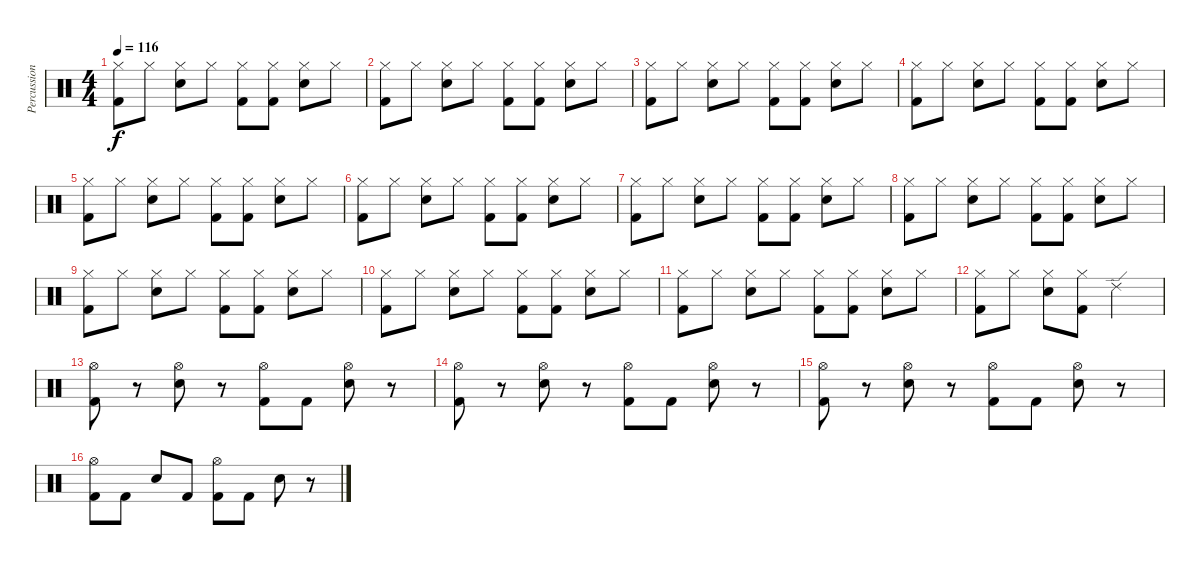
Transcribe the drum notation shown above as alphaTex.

\track ("Percussion" "Percussion") {instrument percussion}
\staff {score}
\articulation defaults
\ts (4 4)
\tempo 116
\clef neutral
\ks c
("Hi-Hat (closed)" "Kick (hit) 2").8{dy f} "Hi-Hat (closed)".8 ("Hi-Hat (closed)" "Snare (hit) 2").8 "Hi-Hat (closed)".8 ("Hi-Hat (closed)" "Kick (hit) 2").8 ("Hi-Hat (closed)" "Kick (hit) 2").8 ("Hi-Hat (closed)" "Snare (hit) 2").8 "Hi-Hat (closed)".8 |
("Hi-Hat (closed)" "Kick (hit) 2").8 "Hi-Hat (closed)".8 ("Hi-Hat (closed)" "Snare (hit) 2").8 "Hi-Hat (closed)".8 ("Hi-Hat (closed)" "Kick (hit) 2").8 ("Hi-Hat (closed)" "Kick (hit) 2").8 ("Hi-Hat (closed)" "Snare (hit) 2").8 "Hi-Hat (closed)".8 |
("Hi-Hat (closed)" "Kick (hit) 2").8 "Hi-Hat (closed)".8 ("Hi-Hat (closed)" "Snare (hit) 2").8 "Hi-Hat (closed)".8 ("Hi-Hat (closed)" "Kick (hit) 2").8 ("Hi-Hat (closed)" "Kick (hit) 2").8 ("Hi-Hat (closed)" "Snare (hit) 2").8 "Hi-Hat (closed)".8 |
("Hi-Hat (closed)" "Kick (hit) 2").8 "Hi-Hat (closed)".8 ("Hi-Hat (closed)" "Snare (hit) 2").8 "Hi-Hat (closed)".8 ("Hi-Hat (closed)" "Kick (hit) 2").8 ("Hi-Hat (closed)" "Kick (hit) 2").8 ("Hi-Hat (closed)" "Snare (hit) 2").8 "Hi-Hat (closed)".8 |
("Hi-Hat (closed)" "Kick (hit) 2").8 "Hi-Hat (closed)".8 ("Hi-Hat (closed)" "Snare (hit) 2").8 "Hi-Hat (closed)".8 ("Hi-Hat (closed)" "Kick (hit) 2").8 ("Hi-Hat (closed)" "Kick (hit) 2").8 ("Hi-Hat (closed)" "Snare (hit) 2").8 "Hi-Hat (closed)".8 |
("Hi-Hat (closed)" "Kick (hit) 2").8 "Hi-Hat (closed)".8 ("Hi-Hat (closed)" "Snare (hit) 2").8 "Hi-Hat (closed)".8 ("Hi-Hat (closed)" "Kick (hit) 2").8 ("Hi-Hat (closed)" "Kick (hit) 2").8 ("Hi-Hat (closed)" "Snare (hit) 2").8 "Hi-Hat (closed)".8 |
("Hi-Hat (closed)" "Kick (hit) 2").8 "Hi-Hat (closed)".8 ("Hi-Hat (closed)" "Snare (hit) 2").8 "Hi-Hat (closed)".8 ("Hi-Hat (closed)" "Kick (hit) 2").8 ("Hi-Hat (closed)" "Kick (hit) 2").8 ("Hi-Hat (closed)" "Snare (hit) 2").8 "Hi-Hat (closed)".8 |
("Hi-Hat (closed)" "Kick (hit) 2").8 "Hi-Hat (closed)".8 ("Hi-Hat (closed)" "Snare (hit) 2").8 "Hi-Hat (closed)".8 ("Hi-Hat (closed)" "Kick (hit) 2").8 ("Hi-Hat (closed)" "Kick (hit) 2").8 ("Hi-Hat (closed)" "Snare (hit) 2").8 "Hi-Hat (closed)".8 |
("Hi-Hat (closed)" "Kick (hit) 2").8 "Hi-Hat (closed)".8 ("Hi-Hat (closed)" "Snare (hit) 2").8 "Hi-Hat (closed)".8 ("Hi-Hat (closed)" "Kick (hit) 2").8 ("Hi-Hat (closed)" "Kick (hit) 2").8 ("Hi-Hat (closed)" "Snare (hit) 2").8 "Hi-Hat (closed)".8 |
("Hi-Hat (closed)" "Kick (hit) 2").8 "Hi-Hat (closed)".8 ("Hi-Hat (closed)" "Snare (hit) 2").8 "Hi-Hat (closed)".8 ("Hi-Hat (closed)" "Kick (hit) 2").8 ("Hi-Hat (closed)" "Kick (hit) 2").8 ("Hi-Hat (closed)" "Snare (hit) 2").8 "Hi-Hat (closed)".8 |
("Hi-Hat (closed)" "Kick (hit) 2").8 "Hi-Hat (closed)".8 ("Hi-Hat (closed)" "Snare (hit) 2").8 "Hi-Hat (closed)".8 ("Hi-Hat (closed)" "Kick (hit) 2").8 ("Hi-Hat (closed)" "Kick (hit) 2").8 ("Hi-Hat (closed)" "Snare (hit) 2").8 "Hi-Hat (closed)".8 |
("Hi-Hat (closed)" "Kick (hit) 2").8 "Hi-Hat (closed)".8 ("Hi-Hat (closed)" "Snare (hit) 2").8 ("Hi-Hat (closed)" "Kick (hit) 2").8 "Ride (edge) 2".2 |
("Hi-Hat (open)" "Kick (hit) 2").8 r.8 ("Hi-Hat (open)" "Snare (hit) 2").8 r.8 ("Hi-Hat (open)" "Kick (hit) 2").8 "Kick (hit) 2".8 ("Hi-Hat (open)" "Snare (hit) 2").8 r.8 |
("Hi-Hat (open)" "Kick (hit) 2").8 r.8 ("Hi-Hat (open)" "Snare (hit) 2").8 r.8 ("Hi-Hat (open)" "Kick (hit) 2").8 "Kick (hit) 2".8 ("Hi-Hat (open)" "Snare (hit) 2").8 r.8 |
("Hi-Hat (open)" "Kick (hit) 2").8 r.8 ("Hi-Hat (open)" "Snare (hit) 2").8 r.8 ("Hi-Hat (open)" "Kick (hit) 2").8 "Kick (hit) 2".8 ("Hi-Hat (open)" "Snare (hit) 2").8 r.8 |
("Hi-Hat (open)" "Kick (hit) 2").8 "Kick (hit) 2".8 "Snare (hit) 2".8 "Kick (hit) 2".8 ("Hi-Hat (open)" "Kick (hit) 2").8 "Kick (hit) 2".8 "Snare (hit) 2".8 r.8
